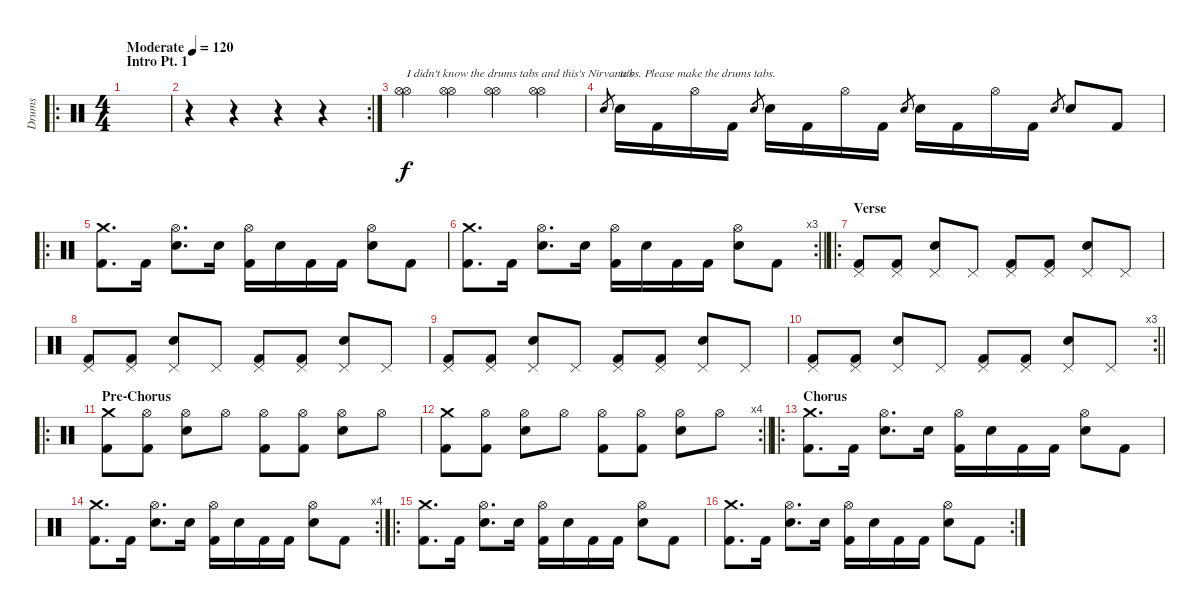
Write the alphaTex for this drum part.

\track ("Drums" "Drums") {instrument percussion}
\staff {score}
\articulation defaults
\ro
\ts (4 4)
\section ("" "Intro Pt. 1")
\tempo (120 "Moderate")
\clef neutral
\ks c
|
\rc 2
r.4 r.4 r.4 r.4 |
("Hi-Hat (open)" "Hi-Hat (open)").4{txt "I didn't know the drums tabs and this's Nirvana's" volume 8} ("Hi-Hat (open)" "Hi-Hat (open)").4 ("Hi-Hat (open)" "Hi-Hat (open)").4 ("Hi-Hat (open)" "Hi-Hat (open)").4 |
"Electric Snare (hit)".8{gr} "Electric Snare (hit)".16{txt "tabs. Please make the drums tabs."} "Kick (hit) 2".16 "Hi-Hat (open)".16 "Kick (hit) 2".16 "Electric Snare (hit)".8{gr} "Electric Snare (hit)".16 "Kick (hit) 2".16 "Hi-Hat (open)".16 "Kick (hit) 2".16 "Electric Snare (hit)".8{gr} "Electric Snare (hit)".16 "Kick (hit) 2".16 "Hi-Hat (open)".16 "Kick (hit) 2".16 "Electric Snare (hit)".8{gr} "Electric Snare (hit)".8 "Kick (hit) 2".8 |
\ro
("Crash medium (hit)" "Kick (hit) 2").8{d volume 13} "Kick (hit) 2".16 ("Hi-Hat (open)" "Electric Snare (hit)").8{d} "Electric Snare (hit)".16 ("Hi-Hat (open)" "Kick (hit) 2").16 "Electric Snare (hit)".16 "Kick (hit) 2".16 "Kick (hit) 2".16 ("Hi-Hat (open)" "Electric Snare (hit)").8 "Kick (hit) 2".8 |
\rc 3
\barLineRight lightlight
("Crash medium (hit)" "Kick (hit) 2").8{d} "Kick (hit) 2".16 ("Hi-Hat (open)" "Electric Snare (hit)").8{d} "Electric Snare (hit)".16 ("Hi-Hat (open)" "Kick (hit) 2").16 "Electric Snare (hit)".16 "Kick (hit) 2".16 "Kick (hit) 2".16 ("Hi-Hat (open)" "Electric Snare (hit)").8 "Kick (hit) 2".8 |
\ro
\section ("" "Verse")
("Pedal Hi-Hat (hit)" "Kick (hit) 2").8 ("Pedal Hi-Hat (hit)" "Kick (hit) 2").8 ("Pedal Hi-Hat (hit)" "Electric Snare (hit)").8 "Pedal Hi-Hat (hit)".8 ("Pedal Hi-Hat (hit)" "Kick (hit) 2").8 ("Pedal Hi-Hat (hit)" "Kick (hit) 2").8 ("Pedal Hi-Hat (hit)" "Electric Snare (hit)").8 "Pedal Hi-Hat (hit)".8 |
("Pedal Hi-Hat (hit)" "Kick (hit) 2").8 ("Pedal Hi-Hat (hit)" "Kick (hit) 2").8 ("Pedal Hi-Hat (hit)" "Electric Snare (hit)").8 "Pedal Hi-Hat (hit)".8 ("Pedal Hi-Hat (hit)" "Kick (hit) 2").8 ("Pedal Hi-Hat (hit)" "Kick (hit) 2").8 ("Pedal Hi-Hat (hit)" "Electric Snare (hit)").8 "Pedal Hi-Hat (hit)".8 |
("Pedal Hi-Hat (hit)" "Kick (hit) 2").8 ("Pedal Hi-Hat (hit)" "Kick (hit) 2").8 ("Pedal Hi-Hat (hit)" "Electric Snare (hit)").8 "Pedal Hi-Hat (hit)".8 ("Pedal Hi-Hat (hit)" "Kick (hit) 2").8 ("Pedal Hi-Hat (hit)" "Kick (hit) 2").8 ("Pedal Hi-Hat (hit)" "Electric Snare (hit)").8 "Pedal Hi-Hat (hit)".8 |
\rc 3
\barLineRight lightlight
("Pedal Hi-Hat (hit)" "Kick (hit) 2").8 ("Pedal Hi-Hat (hit)" "Kick (hit) 2").8 ("Pedal Hi-Hat (hit)" "Electric Snare (hit)").8 "Pedal Hi-Hat (hit)".8 ("Pedal Hi-Hat (hit)" "Kick (hit) 2").8 ("Pedal Hi-Hat (hit)" "Kick (hit) 2").8 ("Pedal Hi-Hat (hit)" "Electric Snare (hit)").8 "Pedal Hi-Hat (hit)".8 |
\ro
\section ("" "Pre-Chorus")
("Crash medium (hit)" "Kick (hit) 2").8 ("Hi-Hat (open)" "Kick (hit) 2").8 ("Hi-Hat (open)" "Electric Snare (hit)").8 "Hi-Hat (open)".8 ("Hi-Hat (open)" "Kick (hit) 2").8 ("Hi-Hat (open)" "Kick (hit) 2").8 ("Hi-Hat (open)" "Electric Snare (hit)").8 "Hi-Hat (open)".8 |
\rc 4
\barLineRight lightlight
("Crash medium (hit)" "Kick (hit) 2").8 ("Hi-Hat (open)" "Kick (hit) 2").8 ("Hi-Hat (open)" "Electric Snare (hit)").8 "Hi-Hat (open)".8 ("Hi-Hat (open)" "Kick (hit) 2").8 ("Hi-Hat (open)" "Kick (hit) 2").8 ("Hi-Hat (open)" "Electric Snare (hit)").8 "Hi-Hat (open)".8 |
\ro
\section ("" "Chorus")
("Crash medium (hit)" "Kick (hit) 2").8{d} "Kick (hit) 2".16 ("Hi-Hat (open)" "Electric Snare (hit)").8{d} "Electric Snare (hit)".16 ("Hi-Hat (open)" "Kick (hit) 2").16 "Electric Snare (hit)".16 "Kick (hit) 2".16 "Kick (hit) 2".16 ("Hi-Hat (open)" "Electric Snare (hit)").8 "Kick (hit) 2".8 |
\rc 4
("Crash medium (hit)" "Kick (hit) 2").8{d} "Kick (hit) 2".16 ("Hi-Hat (open)" "Electric Snare (hit)").8{d} "Electric Snare (hit)".16 ("Hi-Hat (open)" "Kick (hit) 2").16 "Electric Snare (hit)".16 "Kick (hit) 2".16 "Kick (hit) 2".16 ("Hi-Hat (open)" "Electric Snare (hit)").8 "Kick (hit) 2".8 |
\ro
("Crash medium (hit)" "Kick (hit) 2").8{d} "Kick (hit) 2".16 ("Hi-Hat (open)" "Electric Snare (hit)").8{d} "Electric Snare (hit)".16 ("Hi-Hat (open)" "Kick (hit) 2").16 "Electric Snare (hit)".16 "Kick (hit) 2".16 "Kick (hit) 2".16 ("Hi-Hat (open)" "Electric Snare (hit)").8 "Kick (hit) 2".8 |
\rc 2
("Crash medium (hit)" "Kick (hit) 2").8{d} "Kick (hit) 2".16 ("Hi-Hat (open)" "Electric Snare (hit)").8{d} "Electric Snare (hit)".16 ("Hi-Hat (open)" "Kick (hit) 2").16 "Electric Snare (hit)".16 "Kick (hit) 2".16 "Kick (hit) 2".16 ("Hi-Hat (open)" "Electric Snare (hit)").8 "Kick (hit) 2".8
